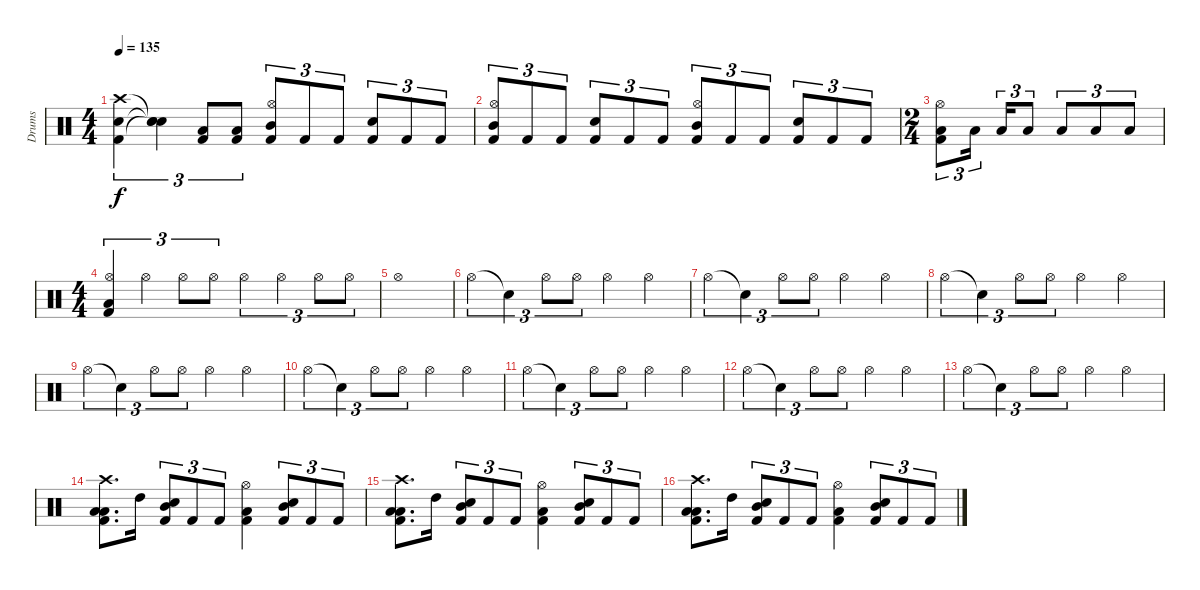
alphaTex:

\track ("Drums" "Drums") {instrument percussion}
\staff {score}
\articulation defaults
\ts (4 4)
\tempo 135
\clef neutral
\ks c
("Crash high (hit)" "Snare (hit) 2" "Kick (hit) 2").4{tu (3 2) dy f} ("Snare (hit)"{t} "Snare (hit)"{t} "Snare (hit)"{t}).4{tu (3 2)} ("Low Tom (hit)" "Kick (hit) 2").8{tu (3 2)} ("Low Tom (hit)" "Kick (hit) 2").8{tu (3 2)} ("Hi-Hat (open)" "Mid Tom (hit)" "Kick (hit) 2").8{tu (3 2)} "Kick (hit) 2".8{tu (3 2)} "Kick (hit) 2".8{tu (3 2)} ("Snare (hit) 2" "Kick (hit) 2").8{tu (3 2)} "Kick (hit) 2".8{tu (3 2)} "Kick (hit) 2".8{tu (3 2)} |
("Hi-Hat (open)" "Mid Tom (hit)" "Kick (hit) 2").8{tu (3 2)} "Kick (hit) 2".8{tu (3 2)} "Kick (hit) 2".8{tu (3 2)} ("Snare (hit) 2" "Kick (hit) 2").8{tu (3 2)} "Kick (hit) 2".8{tu (3 2)} "Kick (hit) 2".8{tu (3 2)} ("Hi-Hat (open)" "Mid Tom (hit)" "Kick (hit) 2").8{tu (3 2)} "Kick (hit) 2".8{tu (3 2)} "Kick (hit) 2".8{tu (3 2)} ("Snare (hit) 2" "Kick (hit) 2").8{tu (3 2)} "Kick (hit) 2".8{tu (3 2)} "Kick (hit) 2".8{tu (3 2)} |
\ts (2 4)
("Hi-Hat (open)" "Low Tom (hit)" "Kick (hit) 2").8{tu (3 2)} "Low Tom (hit)".16{tu (3 2)} "Low Tom (hit)".16{tu (3 2)} "Low Tom (hit)".8{tu (3 2)} "Low Tom (hit)".8{tu (3 2)} "Low Tom (hit)".8{tu (3 2)} "Low Tom (hit)".8{tu (3 2)} |
\ts (4 4)
("Hi-Hat (open)" "Low Floor Tom (hit)" "Kick (hit) 2").4{tu (3 2) volume 13} "Hi-Hat (open)".4{tu (3 2)} "Hi-Hat (open)".8{tu (3 2)} "Hi-Hat (open)".8{tu (3 2)} "Hi-Hat (open)".4{tu (3 2)} "Hi-Hat (open)".4{tu (3 2)} "Hi-Hat (open)".8{tu (3 2)} "Hi-Hat (open)".8{tu (3 2)} |
"Hi-Hat (open)".1 |
"Hi-Hat (open)".4{tu (3 2) volume 10} "Snare (hit)"{t}.4{tu (3 2)} "Hi-Hat (open)".8{tu (3 2)} "Hi-Hat (open)".8{tu (3 2)} "Hi-Hat (open)".4 "Hi-Hat (open)".4 |
"Hi-Hat (open)".4{tu (3 2) volume 10} "Snare (hit)"{t}.4{tu (3 2)} "Hi-Hat (open)".8{tu (3 2)} "Hi-Hat (open)".8{tu (3 2)} "Hi-Hat (open)".4 "Hi-Hat (open)".4 |
"Hi-Hat (open)".4{tu (3 2) volume 10} "Snare (hit)"{t}.4{tu (3 2)} "Hi-Hat (open)".8{tu (3 2)} "Hi-Hat (open)".8{tu (3 2)} "Hi-Hat (open)".4 "Hi-Hat (open)".4 |
"Hi-Hat (open)".4{tu (3 2) volume 10} "Snare (hit)"{t}.4{tu (3 2)} "Hi-Hat (open)".8{tu (3 2)} "Hi-Hat (open)".8{tu (3 2)} "Hi-Hat (open)".4 "Hi-Hat (open)".4 |
"Hi-Hat (open)".4{tu (3 2) volume 10} "Snare (hit)"{t}.4{tu (3 2)} "Hi-Hat (open)".8{tu (3 2)} "Hi-Hat (open)".8{tu (3 2)} "Hi-Hat (open)".4 "Hi-Hat (open)".4 |
"Hi-Hat (open)".4{tu (3 2) volume 10} "Snare (hit)"{t}.4{tu (3 2)} "Hi-Hat (open)".8{tu (3 2)} "Hi-Hat (open)".8{tu (3 2)} "Hi-Hat (open)".4 "Hi-Hat (open)".4 |
"Hi-Hat (open)".4{tu (3 2) volume 10} "Snare (hit)"{t}.4{tu (3 2)} "Hi-Hat (open)".8{tu (3 2)} "Hi-Hat (open)".8{tu (3 2)} "Hi-Hat (open)".4 "Hi-Hat (open)".4 |
"Hi-Hat (open)".4{tu (3 2) volume 10} "Snare (hit)"{t}.4{tu (3 2)} "Hi-Hat (open)".8{tu (3 2)} "Hi-Hat (open)".8{tu (3 2)} "Hi-Hat (open)".4 "Hi-Hat (open)".4 |
("Crash high (hit)" "Low Tom (hit)" "Low Tom (hit)" "Kick (hit) 2").8{d volume 16} "High Tom (hit)".16 ("Mid Tom (hit)" "Snare (hit) 2" "Kick (hit) 2").8{tu (3 2)} "Kick (hit) 2".8{tu (3 2)} "Kick (hit) 2".8{tu (3 2)} ("Hi-Hat (open)" "Low Tom (hit)" "Kick (hit) 2").4 ("Mid Tom (hit)" "Snare (hit) 2" "Kick (hit) 2").8{tu (3 2)} "Kick (hit) 2".8{tu (3 2)} "Kick (hit) 2".8{tu (3 2)} |
("Crash high (hit)" "Low Tom (hit)" "Low Tom (hit)" "Kick (hit) 2").8{d} "High Tom (hit)".16 ("Mid Tom (hit)" "Snare (hit) 2" "Kick (hit) 2").8{tu (3 2)} "Kick (hit) 2".8{tu (3 2)} "Kick (hit) 2".8{tu (3 2)} ("Hi-Hat (open)" "Low Tom (hit)" "Kick (hit) 2").4 ("Mid Tom (hit)" "Snare (hit) 2" "Kick (hit) 2").8{tu (3 2)} "Kick (hit) 2".8{tu (3 2)} "Kick (hit) 2".8{tu (3 2)} |
("Crash high (hit)" "Low Tom (hit)" "Low Tom (hit)" "Kick (hit) 2").8{d} "High Tom (hit)".16 ("Mid Tom (hit)" "Snare (hit) 2" "Kick (hit) 2").8{tu (3 2)} "Kick (hit) 2".8{tu (3 2)} "Kick (hit) 2".8{tu (3 2)} ("Hi-Hat (open)" "Low Tom (hit)" "Kick (hit) 2").4 ("Mid Tom (hit)" "Snare (hit) 2" "Kick (hit) 2").8{tu (3 2)} "Kick (hit) 2".8{tu (3 2)} "Kick (hit) 2".8{tu (3 2)}
